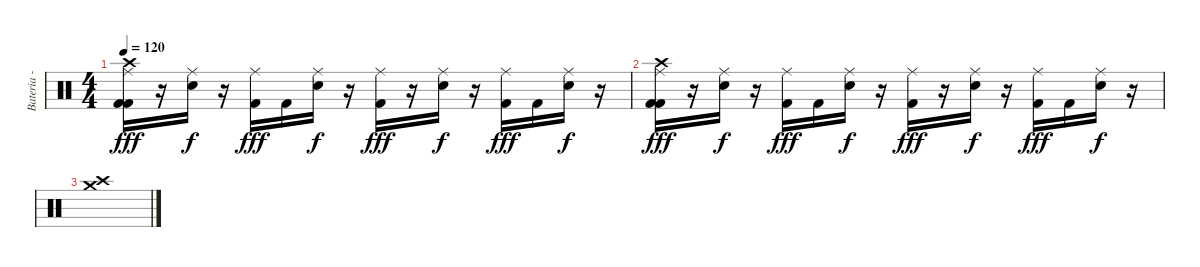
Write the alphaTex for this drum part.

\track ("Bateria - Larzon" "Bateria - ") {instrument percussion}
\staff {score}
\articulation defaults
\ts (4 4)
\tempo 120
\clef neutral
\ks c
("Kick (hit) 2" "Kick (hit) 2" "Crash high (hit)" "Ride (middle)").16{dy fff} r.16 ("Snare (hit) 2" "Ride (middle)").16{dy f} r.16 ("Kick (hit) 2" "Ride (middle)").16{dy fff} "Kick (hit) 2".16 ("Snare (hit) 2" "Ride (middle)").16{dy f} r.16 ("Kick (hit) 2" "Ride (middle)").16{dy fff} r.16 ("Snare (hit) 2" "Ride (middle)").16{dy f} r.16 ("Kick (hit) 2" "Ride (middle)").16{dy fff} "Kick (hit) 2".16 ("Snare (hit) 2" "Ride (middle)").16{dy f} r.16 |
("Kick (hit) 2" "Kick (hit) 2" "Crash high (hit)" "Ride (middle)").16{dy fff} r.16 ("Snare (hit) 2" "Ride (middle)").16{dy f} r.16 ("Kick (hit) 2" "Ride (middle)").16{dy fff} "Kick (hit) 2".16 ("Snare (hit) 2" "Ride (middle)").16{dy f} r.16 ("Kick (hit) 2" "Ride (middle)").16{dy fff} r.16 ("Snare (hit) 2" "Ride (middle)").16{dy f} r.16 ("Kick (hit) 2" "Ride (middle)").16{dy fff} "Kick (hit) 2".16 ("Snare (hit) 2" "Ride (middle)").16{dy f} r.16 |
("Crash high (hit)" "Crash medium (hit)").1
